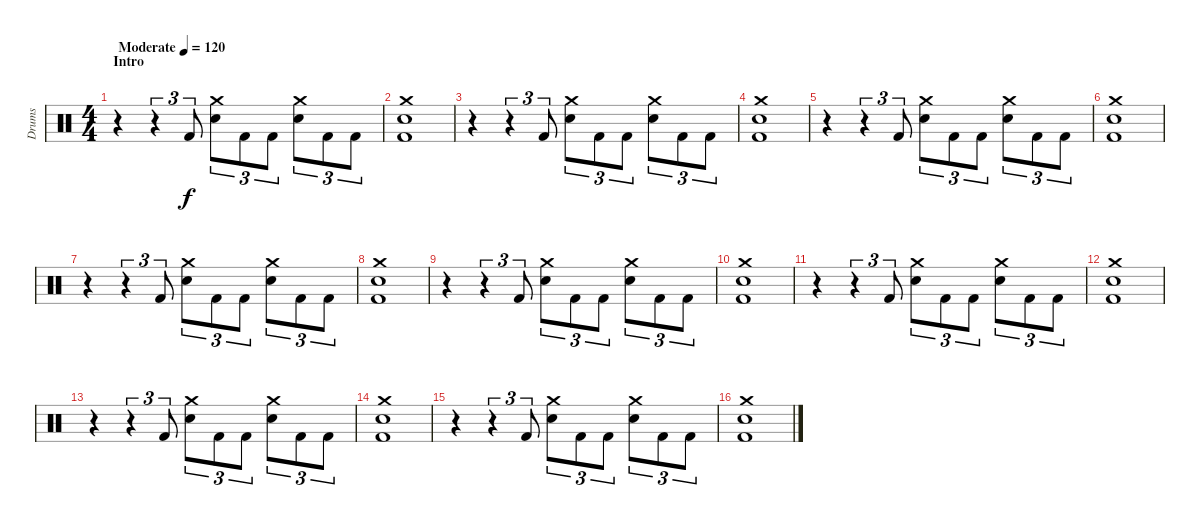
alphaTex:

\track ("Drums" "Drums") {instrument percussion}
\staff {score}
\articulation defaults
\ts (4 4)
\section ("" "Intro")
\tempo (120 "Moderate")
\clef neutral
\ks c
r.4{dy f} r.4{tu (3 2)} "Kick (hit) 2".8{tu (3 2)} ("Crash medium (hit)" "Snare (hit) 2").8{tu (3 2)} "Kick (hit) 2".8{tu (3 2)} "Kick (hit) 2".8{tu (3 2)} ("Crash medium (hit)" "Snare (hit) 2").8{tu (3 2)} "Kick (hit) 2".8{tu (3 2)} "Kick (hit) 2".8{tu (3 2)} |
("Crash medium (hit)" "Snare (hit) 2" "Kick (hit) 2").1 |
r.4 r.4{tu (3 2)} "Kick (hit) 2".8{tu (3 2)} ("Crash medium (hit)" "Snare (hit) 2").8{tu (3 2)} "Kick (hit) 2".8{tu (3 2)} "Kick (hit) 2".8{tu (3 2)} ("Crash medium (hit)" "Snare (hit) 2").8{tu (3 2)} "Kick (hit) 2".8{tu (3 2)} "Kick (hit) 2".8{tu (3 2)} |
("Crash medium (hit)" "Snare (hit) 2" "Kick (hit) 2").1 |
r.4 r.4{tu (3 2)} "Kick (hit) 2".8{tu (3 2)} ("Crash medium (hit)" "Snare (hit) 2").8{tu (3 2)} "Kick (hit) 2".8{tu (3 2)} "Kick (hit) 2".8{tu (3 2)} ("Crash medium (hit)" "Snare (hit) 2").8{tu (3 2)} "Kick (hit) 2".8{tu (3 2)} "Kick (hit) 2".8{tu (3 2)} |
("Crash medium (hit)" "Snare (hit) 2" "Kick (hit) 2").1 |
r.4 r.4{tu (3 2)} "Kick (hit) 2".8{tu (3 2)} ("Crash medium (hit)" "Snare (hit) 2").8{tu (3 2)} "Kick (hit) 2".8{tu (3 2)} "Kick (hit) 2".8{tu (3 2)} ("Crash medium (hit)" "Snare (hit) 2").8{tu (3 2)} "Kick (hit) 2".8{tu (3 2)} "Kick (hit) 2".8{tu (3 2)} |
("Crash medium (hit)" "Snare (hit) 2" "Kick (hit) 2").1 |
r.4 r.4{tu (3 2)} "Kick (hit) 2".8{tu (3 2)} ("Crash medium (hit)" "Snare (hit) 2").8{tu (3 2)} "Kick (hit) 2".8{tu (3 2)} "Kick (hit) 2".8{tu (3 2)} ("Crash medium (hit)" "Snare (hit) 2").8{tu (3 2)} "Kick (hit) 2".8{tu (3 2)} "Kick (hit) 2".8{tu (3 2)} |
("Crash medium (hit)" "Snare (hit) 2" "Kick (hit) 2").1 |
r.4 r.4{tu (3 2)} "Kick (hit) 2".8{tu (3 2)} ("Crash medium (hit)" "Snare (hit) 2").8{tu (3 2)} "Kick (hit) 2".8{tu (3 2)} "Kick (hit) 2".8{tu (3 2)} ("Crash medium (hit)" "Snare (hit) 2").8{tu (3 2)} "Kick (hit) 2".8{tu (3 2)} "Kick (hit) 2".8{tu (3 2)} |
("Crash medium (hit)" "Snare (hit) 2" "Kick (hit) 2").1 |
r.4 r.4{tu (3 2)} "Kick (hit) 2".8{tu (3 2)} ("Crash medium (hit)" "Snare (hit) 2").8{tu (3 2)} "Kick (hit) 2".8{tu (3 2)} "Kick (hit) 2".8{tu (3 2)} ("Crash medium (hit)" "Snare (hit) 2").8{tu (3 2)} "Kick (hit) 2".8{tu (3 2)} "Kick (hit) 2".8{tu (3 2)} |
("Crash medium (hit)" "Snare (hit) 2" "Kick (hit) 2").1 |
r.4 r.4{tu (3 2)} "Kick (hit) 2".8{tu (3 2)} ("Crash medium (hit)" "Snare (hit) 2").8{tu (3 2)} "Kick (hit) 2".8{tu (3 2)} "Kick (hit) 2".8{tu (3 2)} ("Crash medium (hit)" "Snare (hit) 2").8{tu (3 2)} "Kick (hit) 2".8{tu (3 2)} "Kick (hit) 2".8{tu (3 2)} |
("Crash medium (hit)" "Snare (hit) 2" "Kick (hit) 2").1
